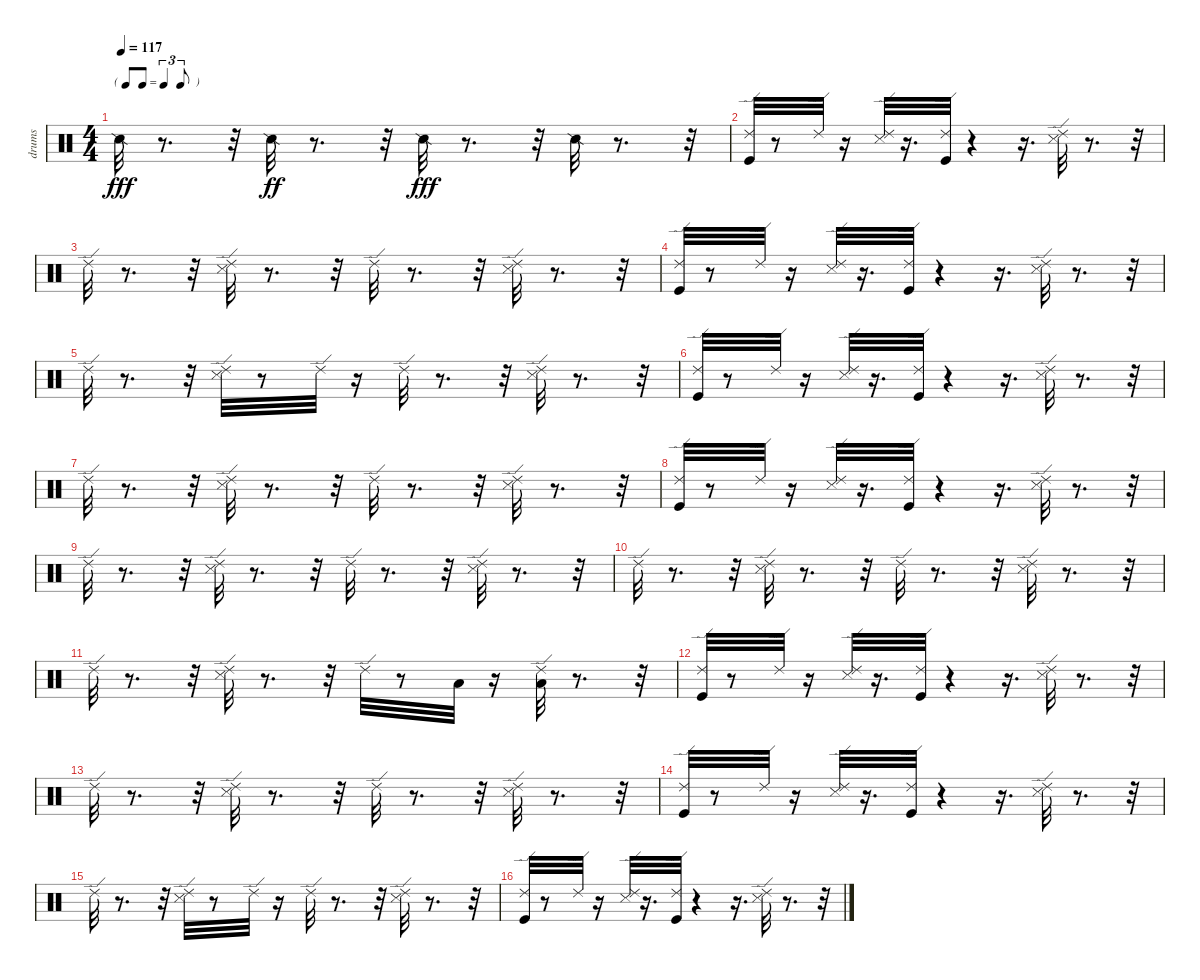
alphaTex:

\track ("drums" "drums") {instrument percussion}
\staff {score}
\articulation defaults
\ts (4 4)
\tf triplet8th
\tempo 117
\clef neutral
\ks c "Snare (side stick) 2".32{dy fff}
r.8{d} r.32 "Snare (side stick) 2".32{dy ff} r.8{d} r.32 "Snare (side stick) 2".32{dy fff} r.8{d} r.32 "Snare (side stick) 2".32 r.8{d} r.32 |
("Kick (hit)" "Ride (edge) 2").32 r.8 "Ride (edge) 2".32 r.16 ("Snare (side stick) 3" "Ride (edge) 2").32 r.16{d} ("Kick (hit)" "Ride (edge) 2").32 r.4 r.16{d} ("Snare (side stick) 3" "Ride (edge) 2").32 r.8{d} r.32 |
"Ride (edge) 2".32 r.8{d} r.32 ("Snare (side stick) 3" "Ride (edge) 2").32 r.8{d} r.32 "Ride (edge) 2".32 r.8{d} r.32 ("Snare (side stick) 3" "Ride (edge) 2").32 r.8{d} r.32 |
("Kick (hit)" "Ride (edge) 2").32 r.8 "Ride (edge) 2".32 r.16 ("Snare (side stick) 3" "Ride (edge) 2").32 r.16{d} ("Kick (hit)" "Ride (edge) 2").32 r.4 r.16{d} ("Snare (side stick) 3" "Ride (edge) 2").32 r.8{d} r.32 |
"Ride (edge) 2".32 r.8{d} r.32 ("Snare (side stick) 3" "Ride (edge) 2").32 r.8 "Ride (edge) 2".32 r.16 "Ride (edge) 2".32 r.8{d} r.32 ("Snare (side stick) 3" "Ride (edge) 2").32 r.8{d} r.32 |
("Kick (hit)" "Ride (edge) 2").32 r.8 "Ride (edge) 2".32 r.16 ("Snare (side stick) 3" "Ride (edge) 2").32 r.16{d} ("Kick (hit)" "Ride (edge) 2").32 r.4 r.16{d} ("Snare (side stick) 3" "Ride (edge) 2").32 r.8{d} r.32 |
"Ride (edge) 2".32 r.8{d} r.32 ("Snare (side stick) 3" "Ride (edge) 2").32 r.8{d} r.32 "Ride (edge) 2".32 r.8{d} r.32 ("Snare (side stick) 3" "Ride (edge) 2").32 r.8{d} r.32 |
("Kick (hit)" "Ride (edge) 2").32 r.8 "Ride (edge) 2".32 r.16 ("Snare (side stick) 3" "Ride (edge) 2").32 r.16{d} ("Kick (hit)" "Ride (edge) 2").32 r.4 r.16{d} ("Snare (side stick) 3" "Ride (edge) 2").32 r.8{d} r.32 |
"Ride (edge) 2".32 r.8{d} r.32 ("Snare (side stick) 3" "Ride (edge) 2").32 r.8{d} r.32 "Ride (edge) 2".32 r.8{d} r.32 ("Snare (side stick) 3" "Ride (edge) 2").32 r.8{d} r.32 |
"Ride (edge) 2".32 r.8{d} r.32 ("Snare (side stick) 3" "Ride (edge) 2").32 r.8{d} r.32 "Ride (edge) 2".32 r.8{d} r.32 ("Snare (side stick) 3" "Ride (edge) 2").32 r.8{d} r.32 |
"Ride (edge) 2".32 r.8{d} r.32 ("Snare (side stick) 3" "Ride (edge) 2").32 r.8{d} r.32 "Ride (edge) 2".32 r.8 "Low Floor Tom (hit)".32 r.16 ("Ride (edge) 2" "Low Floor Tom (hit)").32 r.8{d} r.32 |
("Kick (hit)" "Ride (edge) 2").32 r.8 "Ride (edge) 2".32 r.16 ("Snare (side stick) 3" "Ride (edge) 2").32 r.16{d} ("Kick (hit)" "Ride (edge) 2").32 r.4 r.16{d} ("Snare (side stick) 3" "Ride (edge) 2").32 r.8{d} r.32 |
"Ride (edge) 2".32 r.8{d} r.32 ("Snare (side stick) 3" "Ride (edge) 2").32 r.8{d} r.32 "Ride (edge) 2".32 r.8{d} r.32 ("Snare (side stick) 3" "Ride (edge) 2").32 r.8{d} r.32 |
("Kick (hit)" "Ride (edge) 2").32 r.8 "Ride (edge) 2".32 r.16 ("Snare (side stick) 3" "Ride (edge) 2").32 r.16{d} ("Kick (hit)" "Ride (edge) 2").32 r.4 r.16{d} ("Snare (side stick) 3" "Ride (edge) 2").32 r.8{d} r.32 |
"Ride (edge) 2".32 r.8{d} r.32 ("Snare (side stick) 3" "Ride (edge) 2").32 r.8 "Ride (edge) 2".32 r.16 "Ride (edge) 2".32 r.8{d} r.32 ("Snare (side stick) 3" "Ride (edge) 2").32 r.8{d} r.32 |
("Kick (hit)" "Ride (edge) 2").32 r.8 "Ride (edge) 2".32 r.16 ("Snare (side stick) 3" "Ride (edge) 2").32 r.16{d} ("Kick (hit)" "Ride (edge) 2").32 r.4 r.16{d} ("Snare (side stick) 3" "Ride (edge) 2").32 r.8{d} r.32
